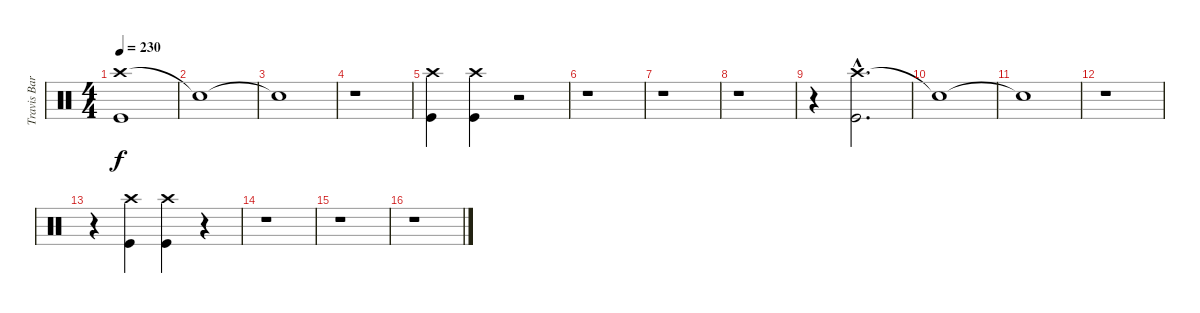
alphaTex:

\track ("Travis Barker" "Travis Bar") {instrument percussion}
\staff {score}
\articulation defaults
\ts (4 4)
\tempo 230
\clef neutral
\ks c
("Crash high (hit)" "Kick (hit)").1{dy f} |
"Snare (hit)"{t}.1 |
"Snare (hit)"{t}.1 |
r.1 |
("Crash high (hit)" "Kick (hit)").4 ("Crash high (hit)" "Kick (hit)").4 r.2 |
r.1 |
r.1 |
r.1 |
r.4 ("Crash high (hit)"{hac} "Kick (hit)"{hac}).2{d} |
"Snare (hit)"{t}.1 |
"Snare (hit)"{t}.1 |
r.1 |
r.4 ("Crash high (hit)" "Kick (hit)").4 ("Crash high (hit)" "Kick (hit)").4 r.4 |
r.1 |
r.1 |
r.1
